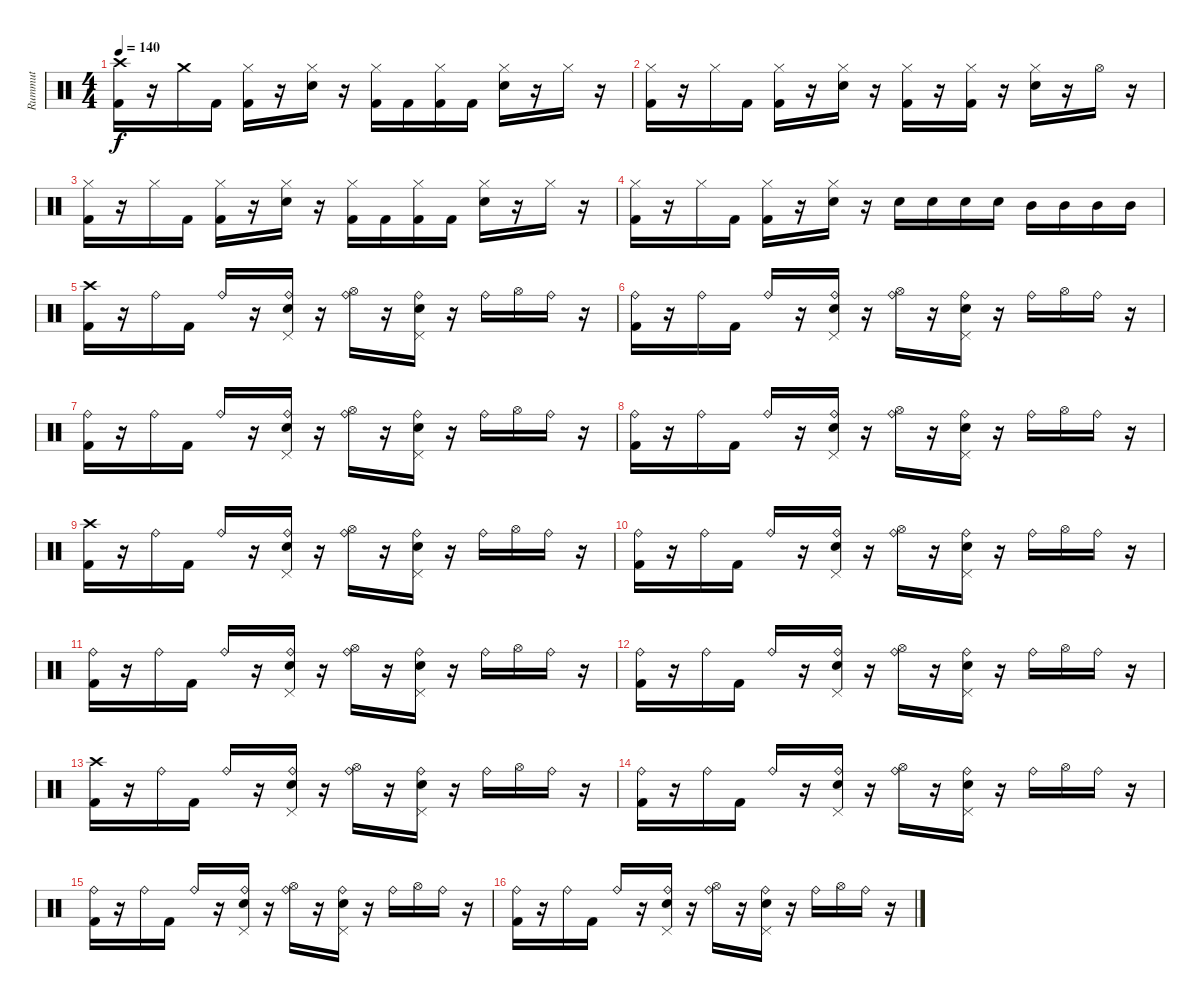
\track ("Rummut" "Rummut") {instrument percussion}
\staff {score}
\articulation defaults
\ts (4 4)
\tempo 140
\clef neutral
\ks c
("Crash high (hit)" "Kick (hit) 2").16{dy f} r.16 "Crash medium (hit)".16 "Kick (hit) 2".16 ("Hi-Hat (closed)" "Kick (hit) 2").16 r.16 ("Hi-Hat (closed)" "Snare (hit) 2").16 r.16 ("Hi-Hat (closed)" "Kick (hit) 2").16 "Kick (hit) 2".16 ("Hi-Hat (closed)" "Kick (hit) 2").16 "Kick (hit) 2".16 ("Hi-Hat (closed)" "Snare (hit) 2").16 r.16 "Hi-Hat (closed)".16 r.16 |
("Hi-Hat (closed)" "Kick (hit) 2").16 r.16 "Hi-Hat (closed)".16 "Kick (hit) 2".16 ("Hi-Hat (closed)" "Kick (hit) 2").16 r.16 ("Hi-Hat (closed)" "Snare (hit) 2").16 r.16 ("Hi-Hat (closed)" "Kick (hit) 2").16 r.16 ("Hi-Hat (closed)" "Kick (hit) 2").16 r.16 ("Hi-Hat (closed)" "Snare (hit) 2").16 r.16 "Hi-Hat (open)".16 r.16 |
("Hi-Hat (closed)" "Kick (hit) 2").16 r.16 "Hi-Hat (closed)".16 "Kick (hit) 2".16 ("Hi-Hat (closed)" "Kick (hit) 2").16 r.16 ("Hi-Hat (closed)" "Snare (hit) 2").16 r.16 ("Hi-Hat (closed)" "Kick (hit) 2").16 "Kick (hit) 2".16 ("Hi-Hat (closed)" "Kick (hit) 2").16 "Kick (hit) 2".16 ("Hi-Hat (closed)" "Snare (hit) 2").16 r.16 "Hi-Hat (closed)".16 r.16 |
("Hi-Hat (closed)" "Kick (hit) 2").16 r.16 "Hi-Hat (closed)".16 "Kick (hit) 2".16 ("Hi-Hat (closed)" "Kick (hit) 2").16 r.16 ("Hi-Hat (closed)" "Snare (hit) 2").16 r.16 "Snare (hit) 2".16 "Snare (hit) 2".16 "Snare (hit) 2".16 "Snare (hit) 2".16 "Mid Tom (hit)".16 "Mid Tom (hit)".16 "Mid Tom (hit)".16 "Mid Tom (hit)".16 |
("Crash high (hit)" "Kick (hit) 2").16 r.16 "Ride (bell)".16 "Kick (hit) 2".16 "Ride (bell)".16 r.16 ("Ride (bell)" "Snare (hit) 2" "Pedal Hi-Hat (hit)").16 r.16 ("Ride (bell)" "Hi-Hat (open)").16 r.16 ("Ride (bell)" "Snare (hit) 2" "Pedal Hi-Hat (hit)").16 r.16 "Ride (bell)".16 "Hi-Hat (open)".16 "Ride (bell)".16 r.16 |
("Ride (bell)" "Kick (hit) 2").16 r.16 "Ride (bell)".16 "Kick (hit) 2".16 "Ride (bell)".16 r.16 ("Ride (bell)" "Snare (hit) 2" "Pedal Hi-Hat (hit)").16 r.16 ("Ride (bell)" "Hi-Hat (open)").16 r.16 ("Ride (bell)" "Snare (hit) 2" "Pedal Hi-Hat (hit)").16 r.16 "Ride (bell)".16 "Hi-Hat (open)".16 "Ride (bell)".16 r.16 |
("Ride (bell)" "Kick (hit) 2").16 r.16 "Ride (bell)".16 "Kick (hit) 2".16 "Ride (bell)".16 r.16 ("Ride (bell)" "Snare (hit) 2" "Pedal Hi-Hat (hit)").16 r.16 ("Ride (bell)" "Hi-Hat (open)").16 r.16 ("Ride (bell)" "Snare (hit) 2" "Pedal Hi-Hat (hit)").16 r.16 "Ride (bell)".16 "Hi-Hat (open)".16 "Ride (bell)".16 r.16 |
("Ride (bell)" "Kick (hit) 2").16 r.16 "Ride (bell)".16 "Kick (hit) 2".16 "Ride (bell)".16 r.16 ("Ride (bell)" "Snare (hit) 2" "Pedal Hi-Hat (hit)").16 r.16 ("Ride (bell)" "Hi-Hat (open)").16 r.16 ("Ride (bell)" "Snare (hit) 2" "Pedal Hi-Hat (hit)").16 r.16 "Ride (bell)".16 "Hi-Hat (open)".16 "Ride (bell)".16 r.16 |
("Crash high (hit)" "Kick (hit) 2").16 r.16 "Ride (bell)".16 "Kick (hit) 2".16 "Ride (bell)".16 r.16 ("Ride (bell)" "Snare (hit) 2" "Pedal Hi-Hat (hit)").16 r.16 ("Ride (bell)" "Hi-Hat (open)").16 r.16 ("Ride (bell)" "Snare (hit) 2" "Pedal Hi-Hat (hit)").16 r.16 "Ride (bell)".16 "Hi-Hat (open)".16 "Ride (bell)".16 r.16 |
("Ride (bell)" "Kick (hit) 2").16 r.16 "Ride (bell)".16 "Kick (hit) 2".16 "Ride (bell)".16 r.16 ("Ride (bell)" "Snare (hit) 2" "Pedal Hi-Hat (hit)").16 r.16 ("Ride (bell)" "Hi-Hat (open)").16 r.16 ("Ride (bell)" "Snare (hit) 2" "Pedal Hi-Hat (hit)").16 r.16 "Ride (bell)".16 "Hi-Hat (open)".16 "Ride (bell)".16 r.16 |
("Ride (bell)" "Kick (hit) 2").16 r.16 "Ride (bell)".16 "Kick (hit) 2".16 "Ride (bell)".16 r.16 ("Ride (bell)" "Snare (hit) 2" "Pedal Hi-Hat (hit)").16 r.16 ("Ride (bell)" "Hi-Hat (open)").16 r.16 ("Ride (bell)" "Snare (hit) 2" "Pedal Hi-Hat (hit)").16 r.16 "Ride (bell)".16 "Hi-Hat (open)".16 "Ride (bell)".16 r.16 |
("Ride (bell)" "Kick (hit) 2").16 r.16 "Ride (bell)".16 "Kick (hit) 2".16 "Ride (bell)".16 r.16 ("Ride (bell)" "Snare (hit) 2" "Pedal Hi-Hat (hit)").16 r.16 ("Ride (bell)" "Hi-Hat (open)").16 r.16 ("Ride (bell)" "Snare (hit) 2" "Pedal Hi-Hat (hit)").16 r.16 "Ride (bell)".16 "Hi-Hat (open)".16 "Ride (bell)".16 r.16 |
("Crash high (hit)" "Kick (hit) 2").16 r.16 "Ride (bell)".16 "Kick (hit) 2".16 "Ride (bell)".16 r.16 ("Ride (bell)" "Snare (hit) 2" "Pedal Hi-Hat (hit)").16 r.16 ("Ride (bell)" "Hi-Hat (open)").16 r.16 ("Ride (bell)" "Snare (hit) 2" "Pedal Hi-Hat (hit)").16 r.16 "Ride (bell)".16 "Hi-Hat (open)".16 "Ride (bell)".16 r.16 |
("Ride (bell)" "Kick (hit) 2").16 r.16 "Ride (bell)".16 "Kick (hit) 2".16 "Ride (bell)".16 r.16 ("Ride (bell)" "Snare (hit) 2" "Pedal Hi-Hat (hit)").16 r.16 ("Ride (bell)" "Hi-Hat (open)").16 r.16 ("Ride (bell)" "Snare (hit) 2" "Pedal Hi-Hat (hit)").16 r.16 "Ride (bell)".16 "Hi-Hat (open)".16 "Ride (bell)".16 r.16 |
("Ride (bell)" "Kick (hit) 2").16 r.16 "Ride (bell)".16 "Kick (hit) 2".16 "Ride (bell)".16 r.16 ("Ride (bell)" "Snare (hit) 2" "Pedal Hi-Hat (hit)").16 r.16 ("Ride (bell)" "Hi-Hat (open)").16 r.16 ("Ride (bell)" "Snare (hit) 2" "Pedal Hi-Hat (hit)").16 r.16 "Ride (bell)".16 "Hi-Hat (open)".16 "Ride (bell)".16 r.16 |
("Ride (bell)" "Kick (hit) 2").16 r.16 "Ride (bell)".16 "Kick (hit) 2".16 "Ride (bell)".16 r.16 ("Ride (bell)" "Snare (hit) 2" "Pedal Hi-Hat (hit)").16 r.16 ("Ride (bell)" "Hi-Hat (open)").16 r.16 ("Ride (bell)" "Snare (hit) 2" "Pedal Hi-Hat (hit)").16 r.16 "Ride (bell)".16 "Hi-Hat (open)".16 "Ride (bell)".16 r.16
